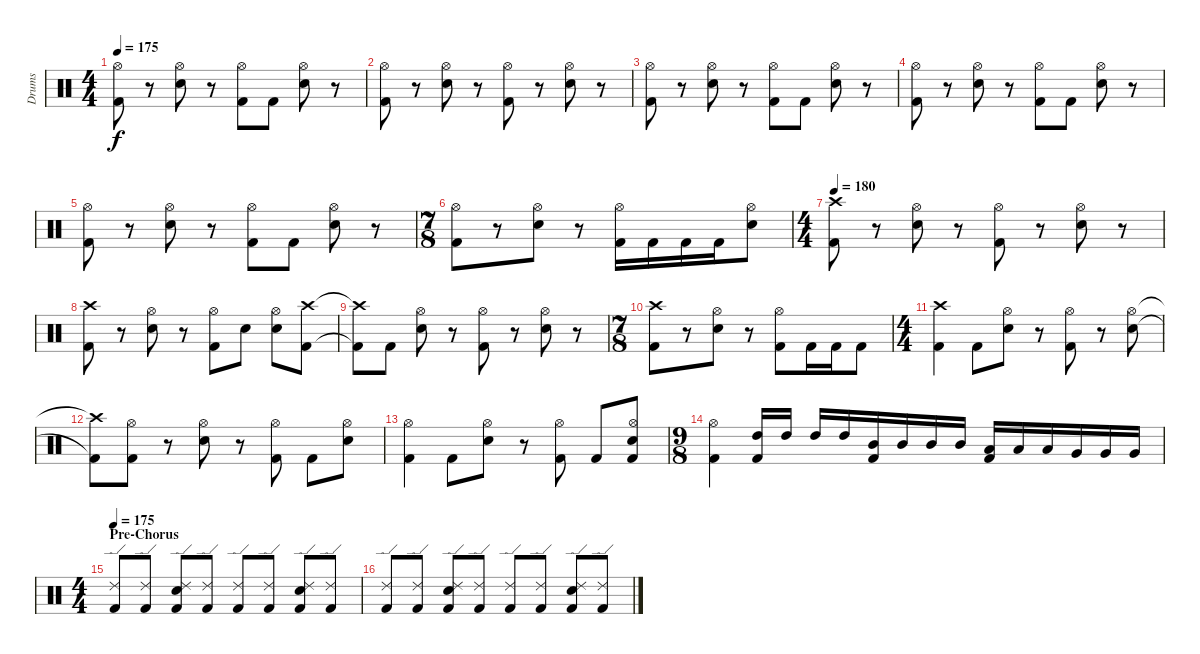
\track ("Drums" "Drums") {instrument percussion}
\staff {score}
\articulation defaults
\ts (4 4)
\tempo 175
\clef neutral
\ks c
("Kick (hit) 2" "Hi-Hat (open)").8{dy f} r.8 ("Electric Snare (hit)" "Hi-Hat (open)").8 r.8 ("Kick (hit) 2" "Hi-Hat (open)").8 "Kick (hit) 2".8 ("Electric Snare (hit)" "Hi-Hat (open)").8 r.8 |
("Kick (hit) 2" "Hi-Hat (open)").8 r.8 ("Electric Snare (hit)" "Hi-Hat (open)").8 r.8 ("Kick (hit) 2" "Hi-Hat (open)").8 r.8 ("Electric Snare (hit)" "Hi-Hat (open)").8 r.8 |
("Kick (hit) 2" "Hi-Hat (open)").8 r.8 ("Electric Snare (hit)" "Hi-Hat (open)").8 r.8 ("Kick (hit) 2" "Hi-Hat (open)").8 "Kick (hit) 2".8 ("Electric Snare (hit)" "Hi-Hat (open)").8 r.8 |
("Kick (hit) 2" "Hi-Hat (open)").8 r.8 ("Electric Snare (hit)" "Hi-Hat (open)").8 r.8 ("Kick (hit) 2" "Hi-Hat (open)").8 "Kick (hit) 2".8 ("Electric Snare (hit)" "Hi-Hat (open)").8 r.8 |
("Kick (hit) 2" "Hi-Hat (open)").8 r.8 ("Electric Snare (hit)" "Hi-Hat (open)").8 r.8 ("Kick (hit) 2" "Hi-Hat (open)").8 "Kick (hit) 2".8 ("Electric Snare (hit)" "Hi-Hat (open)").8 r.8 |
\ts (7 8)
("Kick (hit) 2" "Hi-Hat (open)").8 r.8 ("Electric Snare (hit)" "Hi-Hat (open)").8 r.8 ("Kick (hit) 2" "Hi-Hat (open)").16 "Kick (hit) 2".16 "Kick (hit) 2".16 "Kick (hit) 2".16 ("Electric Snare (hit)" "Hi-Hat (open)").8 |
\ts (4 4)
\tempo 180
("Kick (hit) 2" "Crash high (hit)").8 r.8 ("Electric Snare (hit)" "Hi-Hat (open)").8 r.8 ("Kick (hit) 2" "Hi-Hat (open)").8 r.8 ("Electric Snare (hit)" "Hi-Hat (open)").8 r.8 |
("Kick (hit) 2" "Crash high (hit)").8 r.8 ("Electric Snare (hit)" "Hi-Hat (open)").8 r.8 ("Kick (hit) 2" "Hi-Hat (open)").8 "Electric Snare (hit)".8 ("Electric Snare (hit)" "Hi-Hat (open)").8 ("Kick (hit) 2" "Crash high (hit)").8 |
("Kick (hit) 2"{t} "Crash high (hit)"{t}).8 "Kick (hit) 2".8 ("Electric Snare (hit)" "Hi-Hat (open)").8 r.8 ("Kick (hit) 2" "Hi-Hat (open)").8 r.8 ("Electric Snare (hit)" "Hi-Hat (open)").8 r.8 |
\ts (7 8)
("Kick (hit) 2" "Crash high (hit)").8 r.8 ("Electric Snare (hit)" "Hi-Hat (open)").8 r.8 ("Kick (hit) 2" "Hi-Hat (open)").8 "Kick (hit) 2".16 "Kick (hit) 2".16 "Kick (hit) 2".8 |
\ts (4 4)
("Kick (hit) 2" "Crash high (hit)").4 "Kick (hit) 2".8 ("Electric Snare (hit)" "Hi-Hat (open)").8 r.8 ("Kick (hit) 2" "Hi-Hat (open)").8 r.8 ("Electric Snare (hit)" "Hi-Hat (open)").8 |
("Kick (hit) 2"{t} "Crash high (hit)"{t}).8 ("Kick (hit) 2" "Hi-Hat (open)").8 r.8 ("Electric Snare (hit)" "Hi-Hat (open)").8 r.8 ("Kick (hit) 2" "Hi-Hat (open)").8 "Kick (hit) 2".8 ("Electric Snare (hit)" "Hi-Hat (open)").8 |
("Kick (hit) 2" "Hi-Hat (open)").4 "Kick (hit) 2".8 ("Electric Snare (hit)" "Hi-Hat (open)").8 r.8 ("Kick (hit) 2" "Hi-Hat (open)").8 "Kick (hit) 2".8 ("Kick (hit) 2" "Electric Snare (hit)" "Hi-Hat (open)").8 |
\ts (9 8)
("Kick (hit) 2" "Hi-Hat (open)").4 ("Kick (hit) 2" "High Tom (hit)").16 "High Tom (hit)".16 "High Tom (hit)".16 "High Tom (hit)".16 ("Kick (hit) 2" "Mid Tom (hit)").16 "Mid Tom (hit)".16 "Mid Tom (hit)".16 "Mid Tom (hit)".16 ("Kick (hit) 2" "Low Tom (hit)").16 "Low Tom (hit)".16 "Low Tom (hit)".16 "Very Low Tom (hit)".16 "Very Low Tom (hit)".16 "Very Low Tom (hit)".16 |
\ts (4 4)
\section ("" "Pre-Chorus")
\tempo 175
("Kick (hit) 2" "Ride (edge) 2").8 ("Kick (hit) 2" "Ride (edge) 2").8 ("Kick (hit) 2" "Electric Snare (hit)" "Ride (edge) 2").8 ("Kick (hit) 2" "Ride (edge) 2").8 ("Kick (hit) 2" "Ride (edge) 2").8 ("Kick (hit) 2" "Ride (edge) 2").8 ("Kick (hit) 2" "Electric Snare (hit)" "Ride (edge) 2").8 ("Kick (hit) 2" "Ride (edge) 2").8 |
("Kick (hit) 2" "Ride (edge) 2").8 ("Kick (hit) 2" "Ride (edge) 2").8 ("Kick (hit) 2" "Electric Snare (hit)" "Ride (edge) 2").8 ("Kick (hit) 2" "Ride (edge) 2").8 ("Kick (hit) 2" "Ride (edge) 2").8 ("Kick (hit) 2" "Ride (edge) 2").8 ("Kick (hit) 2" "Electric Snare (hit)" "Ride (edge) 2").8 ("Kick (hit) 2" "Ride (edge) 2").8
